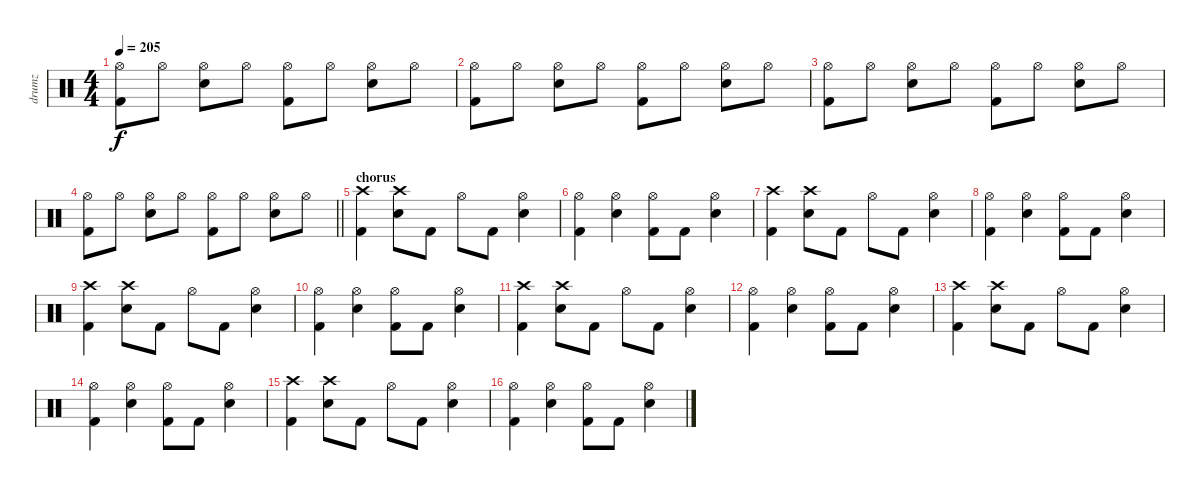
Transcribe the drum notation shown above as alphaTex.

\track ("drumz" "drumz") {instrument percussion}
\staff {score}
\articulation defaults
\ts (4 4)
\tempo 205
\clef neutral
\ks c
("Hi-Hat (open)" "Kick (hit) 2").8{dy f} "Hi-Hat (open)".8 ("Hi-Hat (open)" "Electric Snare (hit)").8 "Hi-Hat (open)".8 ("Hi-Hat (open)" "Kick (hit) 2").8 "Hi-Hat (open)".8 ("Hi-Hat (open)" "Electric Snare (hit)").8 "Hi-Hat (open)".8 |
("Hi-Hat (open)" "Kick (hit) 2").8 "Hi-Hat (open)".8 ("Hi-Hat (open)" "Electric Snare (hit)").8 "Hi-Hat (open)".8 ("Hi-Hat (open)" "Kick (hit) 2").8 "Hi-Hat (open)".8 ("Hi-Hat (open)" "Electric Snare (hit)").8 "Hi-Hat (open)".8 |
("Hi-Hat (open)" "Kick (hit) 2").8 "Hi-Hat (open)".8 ("Hi-Hat (open)" "Electric Snare (hit)").8 "Hi-Hat (open)".8 ("Hi-Hat (open)" "Kick (hit) 2").8 "Hi-Hat (open)".8 ("Hi-Hat (open)" "Electric Snare (hit)").8 "Hi-Hat (open)".8 |
\barLineRight lightlight
("Hi-Hat (open)" "Kick (hit) 2").8 "Hi-Hat (open)".8 ("Hi-Hat (open)" "Electric Snare (hit)").8 "Hi-Hat (open)".8 ("Hi-Hat (open)" "Kick (hit) 2").8 "Hi-Hat (open)".8 ("Hi-Hat (open)" "Electric Snare (hit)").8 "Hi-Hat (open)".8 |
\section ("" "chorus")
("Crash high (hit)" "Kick (hit) 2").4 ("Crash high (hit)" "Electric Snare (hit)").8 "Kick (hit) 2".8 "Hi-Hat (open)".8 "Kick (hit) 2".8 ("Hi-Hat (open)" "Electric Snare (hit)").4 |
("Hi-Hat (open)" "Kick (hit) 2").4 ("Hi-Hat (open)" "Electric Snare (hit)").4 ("Hi-Hat (open)" "Kick (hit) 2").8 "Kick (hit) 2".8 ("Hi-Hat (open)" "Electric Snare (hit)").4 |
("Crash high (hit)" "Kick (hit) 2").4 ("Crash high (hit)" "Electric Snare (hit)").8 "Kick (hit) 2".8 "Hi-Hat (open)".8 "Kick (hit) 2".8 ("Hi-Hat (open)" "Electric Snare (hit)").4 |
("Hi-Hat (open)" "Kick (hit) 2").4 ("Hi-Hat (open)" "Electric Snare (hit)").4 ("Hi-Hat (open)" "Kick (hit) 2").8 "Kick (hit) 2".8 ("Hi-Hat (open)" "Electric Snare (hit)").4 |
("Crash high (hit)" "Kick (hit) 2").4 ("Crash high (hit)" "Electric Snare (hit)").8 "Kick (hit) 2".8 "Hi-Hat (open)".8 "Kick (hit) 2".8 ("Hi-Hat (open)" "Electric Snare (hit)").4 |
("Hi-Hat (open)" "Kick (hit) 2").4 ("Hi-Hat (open)" "Electric Snare (hit)").4 ("Hi-Hat (open)" "Kick (hit) 2").8 "Kick (hit) 2".8 ("Hi-Hat (open)" "Electric Snare (hit)").4 |
("Crash high (hit)" "Kick (hit) 2").4 ("Crash high (hit)" "Electric Snare (hit)").8 "Kick (hit) 2".8 "Hi-Hat (open)".8 "Kick (hit) 2".8 ("Hi-Hat (open)" "Electric Snare (hit)").4 |
("Hi-Hat (open)" "Kick (hit) 2").4 ("Hi-Hat (open)" "Electric Snare (hit)").4 ("Hi-Hat (open)" "Kick (hit) 2").8 "Kick (hit) 2".8 ("Hi-Hat (open)" "Electric Snare (hit)").4 |
("Crash high (hit)" "Kick (hit) 2").4 ("Crash high (hit)" "Electric Snare (hit)").8 "Kick (hit) 2".8 "Hi-Hat (open)".8 "Kick (hit) 2".8 ("Hi-Hat (open)" "Electric Snare (hit)").4 |
("Hi-Hat (open)" "Kick (hit) 2").4 ("Hi-Hat (open)" "Electric Snare (hit)").4 ("Hi-Hat (open)" "Kick (hit) 2").8 "Kick (hit) 2".8 ("Hi-Hat (open)" "Electric Snare (hit)").4 |
("Crash high (hit)" "Kick (hit) 2").4 ("Crash high (hit)" "Electric Snare (hit)").8 "Kick (hit) 2".8 "Hi-Hat (open)".8 "Kick (hit) 2".8 ("Hi-Hat (open)" "Electric Snare (hit)").4 |
("Hi-Hat (open)" "Kick (hit) 2").4 ("Hi-Hat (open)" "Electric Snare (hit)").4 ("Hi-Hat (open)" "Kick (hit) 2").8 "Kick (hit) 2".8 ("Hi-Hat (open)" "Electric Snare (hit)").4
